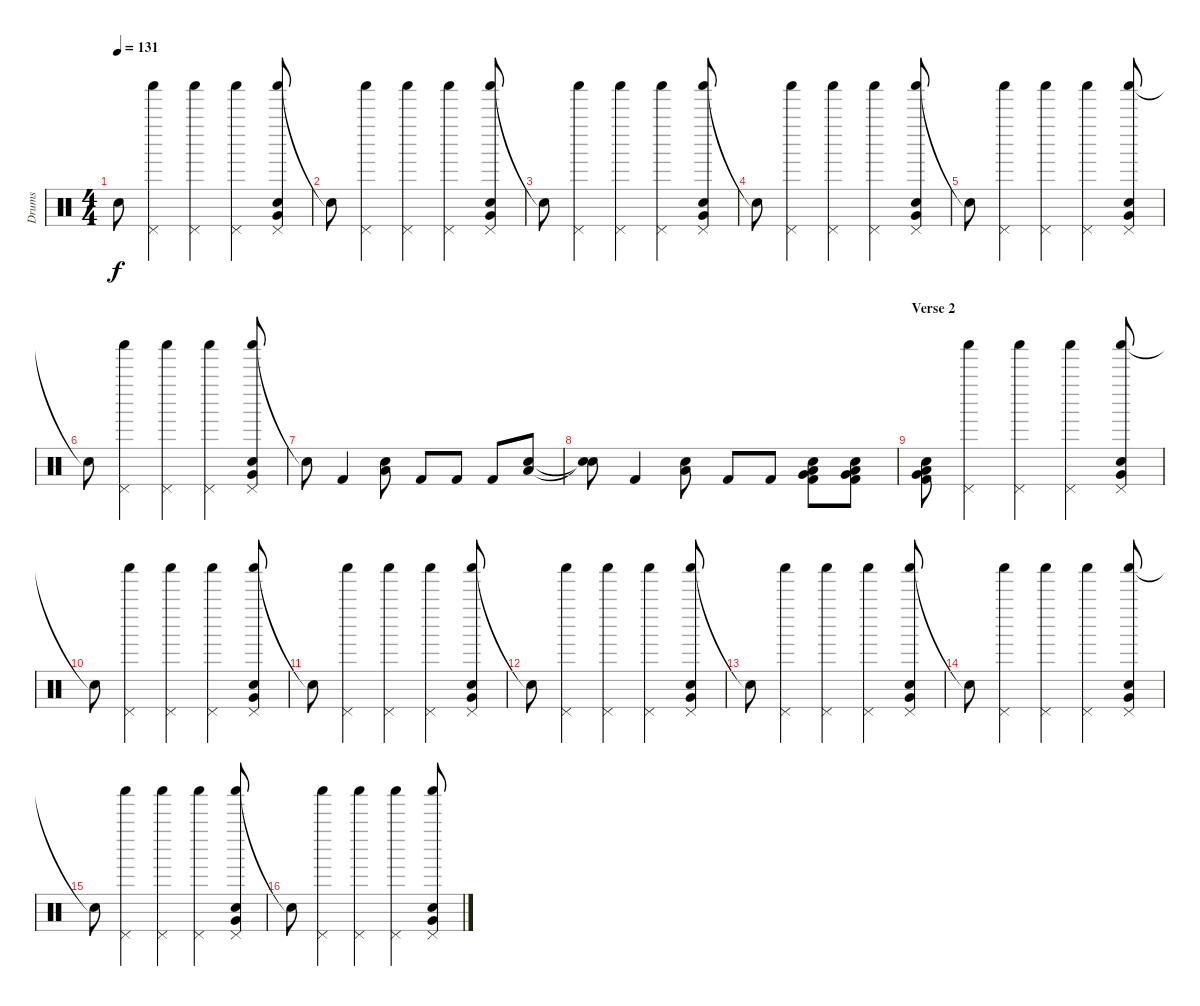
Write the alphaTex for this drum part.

\track ("Drums" "Drums") {instrument percussion}
\staff {score}
\articulation defaults
\ts (4 4)
\tempo 131
\clef neutral
\ks c "Snare (hit) 2"{t}.8{dy f}
("Shaker (hit)" "Pedal Hi-Hat (hit)").4 ("Shaker (hit)" "Pedal Hi-Hat (hit)").4 ("Shaker (hit)" "Pedal Hi-Hat (hit)").4 ("Shaker (hit)" "Pedal Hi-Hat (hit)" "Snare (hit) 2" "Very Low Tom (hit)").8 |
"Snare (hit) 2"{t}.8 ("Shaker (hit)" "Pedal Hi-Hat (hit)").4 ("Shaker (hit)" "Pedal Hi-Hat (hit)").4 ("Shaker (hit)" "Pedal Hi-Hat (hit)").4 ("Shaker (hit)" "Pedal Hi-Hat (hit)" "Snare (hit) 2" "Very Low Tom (hit)").8 |
"Snare (hit) 2"{t}.8 ("Shaker (hit)" "Pedal Hi-Hat (hit)").4 ("Shaker (hit)" "Pedal Hi-Hat (hit)").4 ("Shaker (hit)" "Pedal Hi-Hat (hit)").4 ("Shaker (hit)" "Pedal Hi-Hat (hit)" "Snare (hit) 2" "Very Low Tom (hit)").8 |
"Snare (hit) 2"{t}.8 ("Shaker (hit)" "Pedal Hi-Hat (hit)").4 ("Shaker (hit)" "Pedal Hi-Hat (hit)").4 ("Shaker (hit)" "Pedal Hi-Hat (hit)").4 ("Shaker (hit)" "Pedal Hi-Hat (hit)" "Snare (hit) 2" "Very Low Tom (hit)").8 |
"Snare (hit) 2"{t}.8 ("Shaker (hit)" "Pedal Hi-Hat (hit)").4 ("Shaker (hit)" "Pedal Hi-Hat (hit)").4 ("Shaker (hit)" "Pedal Hi-Hat (hit)").4 ("Shaker (hit)" "Pedal Hi-Hat (hit)" "Snare (hit) 2" "Very Low Tom (hit)").8 |
"Snare (hit) 2"{t}.8 ("Shaker (hit)" "Pedal Hi-Hat (hit)").4 ("Shaker (hit)" "Pedal Hi-Hat (hit)").4 ("Shaker (hit)" "Pedal Hi-Hat (hit)").4 ("Shaker (hit)" "Pedal Hi-Hat (hit)" "Snare (hit) 2" "Very Low Tom (hit)").8 |
"Snare (hit) 2"{t}.8{volume 16} "Kick (hit) 2".4 ("Low Tom (hit)" "Snare (hit) 2").8 "Kick (hit) 2".8 "Kick (hit) 2".8 "Kick (hit) 2".8 ("Low Tom (hit)" "Snare (hit) 2").8 |
("Snare (hit)"{t} "Snare (hit)"{t}).8 "Kick (hit) 2".4 ("Low Tom (hit)" "Snare (hit) 2").8 "Kick (hit) 2".8 "Kick (hit) 2".8 ("Low Tom (hit)" "Kick (hit) 2" "Very Low Tom (hit)" "Snare (hit) 2").8 ("Low Tom (hit)" "Kick (hit) 2" "Very Low Tom (hit)" "Snare (hit) 2").8 |
\section ("" "Verse 2")
("Low Tom (hit)" "Kick (hit) 2" "Very Low Tom (hit)" "Snare (hit) 2").8 ("Shaker (hit)" "Pedal Hi-Hat (hit)").4 ("Shaker (hit)" "Pedal Hi-Hat (hit)").4 ("Shaker (hit)" "Pedal Hi-Hat (hit)").4 ("Shaker (hit)" "Pedal Hi-Hat (hit)" "Snare (hit) 2" "Very Low Tom (hit)").8 |
"Snare (hit) 2"{t}.8 ("Shaker (hit)" "Pedal Hi-Hat (hit)").4 ("Shaker (hit)" "Pedal Hi-Hat (hit)").4 ("Shaker (hit)" "Pedal Hi-Hat (hit)").4 ("Shaker (hit)" "Pedal Hi-Hat (hit)" "Snare (hit) 2" "Very Low Tom (hit)").8 |
"Snare (hit) 2"{t}.8 ("Shaker (hit)" "Pedal Hi-Hat (hit)").4 ("Shaker (hit)" "Pedal Hi-Hat (hit)").4 ("Shaker (hit)" "Pedal Hi-Hat (hit)").4 ("Shaker (hit)" "Pedal Hi-Hat (hit)" "Snare (hit) 2" "Very Low Tom (hit)").8 |
"Snare (hit) 2"{t}.8 ("Shaker (hit)" "Pedal Hi-Hat (hit)").4 ("Shaker (hit)" "Pedal Hi-Hat (hit)").4 ("Shaker (hit)" "Pedal Hi-Hat (hit)").4 ("Shaker (hit)" "Pedal Hi-Hat (hit)" "Snare (hit) 2" "Very Low Tom (hit)").8 |
"Snare (hit) 2"{t}.8 ("Shaker (hit)" "Pedal Hi-Hat (hit)").4 ("Shaker (hit)" "Pedal Hi-Hat (hit)").4 ("Shaker (hit)" "Pedal Hi-Hat (hit)").4 ("Shaker (hit)" "Pedal Hi-Hat (hit)" "Snare (hit) 2" "Very Low Tom (hit)").8 |
"Snare (hit) 2"{t}.8 ("Shaker (hit)" "Pedal Hi-Hat (hit)").4 ("Shaker (hit)" "Pedal Hi-Hat (hit)").4 ("Shaker (hit)" "Pedal Hi-Hat (hit)").4 ("Shaker (hit)" "Pedal Hi-Hat (hit)" "Snare (hit) 2" "Very Low Tom (hit)").8 |
"Snare (hit) 2"{t}.8 ("Shaker (hit)" "Pedal Hi-Hat (hit)").4 ("Shaker (hit)" "Pedal Hi-Hat (hit)").4 ("Shaker (hit)" "Pedal Hi-Hat (hit)").4 ("Shaker (hit)" "Pedal Hi-Hat (hit)" "Snare (hit) 2" "Very Low Tom (hit)").8 |
"Snare (hit) 2"{t}.8 ("Shaker (hit)" "Pedal Hi-Hat (hit)").4 ("Shaker (hit)" "Pedal Hi-Hat (hit)").4 ("Shaker (hit)" "Pedal Hi-Hat (hit)").4 ("Shaker (hit)" "Pedal Hi-Hat (hit)" "Snare (hit) 2" "Very Low Tom (hit)").8
